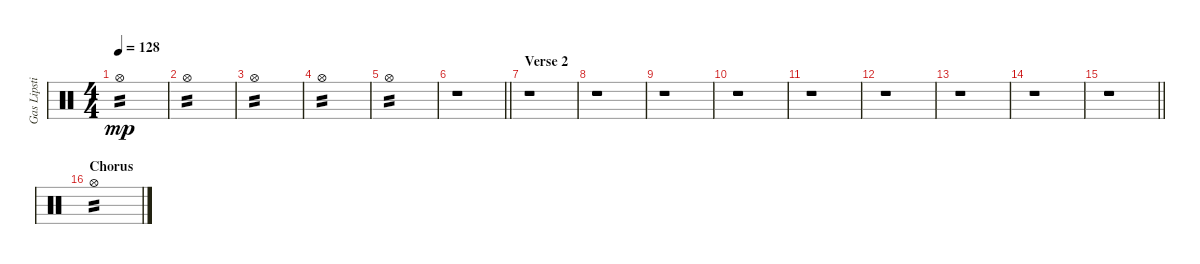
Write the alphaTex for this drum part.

\track ("Gas Lipstick (Drums)" "Gas Lipsti") {instrument percussion}
\staff {score}
\articulation defaults
\ts (4 4)
\tempo 128
\clef neutral
\ks c "Hi-Hat (open)".1{tp 2 dy mp}
|
"Hi-Hat (open)".1{tp 2} |
"Hi-Hat (open)".1{tp 2} |
"Hi-Hat (open)".1{tp 2} |
"Hi-Hat (open)".1{tp 2} |
\barLineRight lightlight
r.1 |
\section ("" "Verse 2")
r.1 |
r.1 |
r.1 |
r.1 |
r.1 |
r.1 |
r.1 |
r.1 |
\barLineRight lightlight
r.1 |
\section ("" "Chorus")
"Hi-Hat (open)".1{tp 2}
